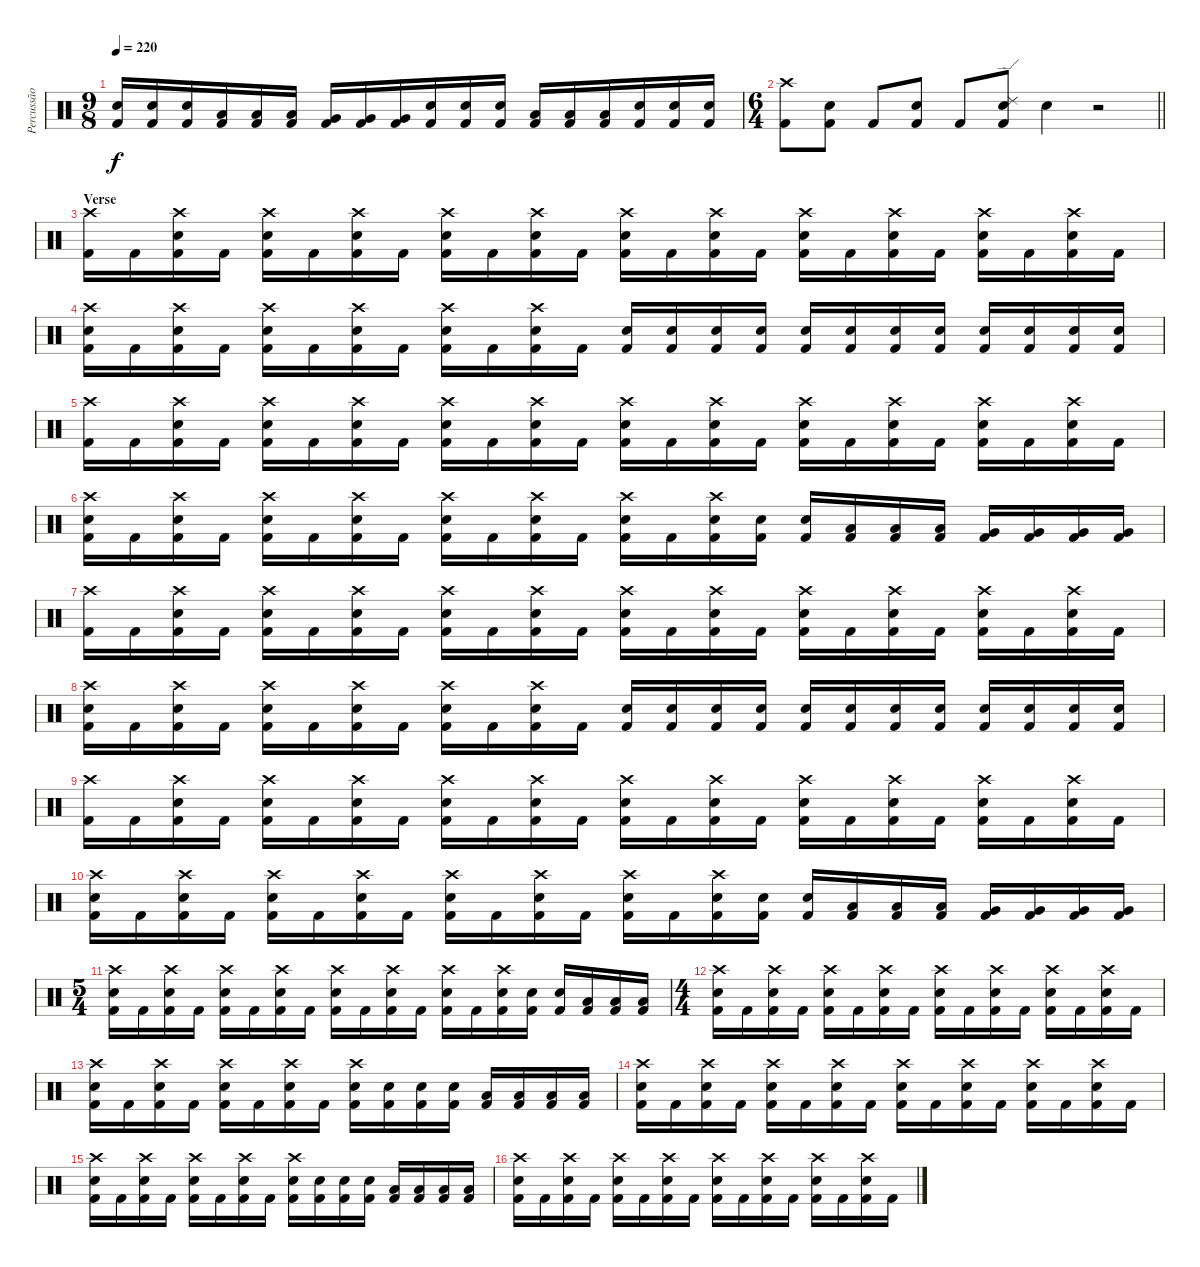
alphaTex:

\track ("Percussão" "Percussão") {instrument percussion}
\staff {score}
\articulation defaults
\ts (9 8)
\tempo 220
\clef neutral
\ks c
("Electric Snare (hit)" "Kick (hit) 2").16{dy f} ("Electric Snare (hit)" "Kick (hit) 2").16 ("Electric Snare (hit)" "Kick (hit) 2").16 ("Low Tom (hit)" "Kick (hit) 2").16 ("Low Tom (hit)" "Kick (hit) 2").16 ("Low Tom (hit)" "Kick (hit) 2").16 ("Very Low Tom (hit)" "Kick (hit) 2").16 ("Very Low Tom (hit)" "Kick (hit) 2").16 ("Very Low Tom (hit)" "Kick (hit) 2").16 ("Electric Snare (hit)" "Kick (hit) 2").16 ("Electric Snare (hit)" "Kick (hit) 2").16 ("Electric Snare (hit)" "Kick (hit) 2").16 ("Low Tom (hit)" "Kick (hit) 2").16 ("Low Tom (hit)" "Kick (hit) 2").16 ("Low Tom (hit)" "Kick (hit) 2").16 ("Electric Snare (hit)" "Kick (hit) 2").16 ("Electric Snare (hit)" "Kick (hit) 2").16 ("Electric Snare (hit)" "Kick (hit) 2").16 |
\ts (6 4)
\barLineRight lightlight
("Crash high (hit)" "Kick (hit) 2").8 ("Electric Snare (hit)" "Kick (hit) 2").8 "Kick (hit) 2".8 ("Electric Snare (hit)" "Kick (hit) 2").8 "Kick (hit) 2".8 ("Ride (edge) 2" "Electric Snare (hit)" "Kick (hit) 2").8 "Electric Snare (hit)".4 r.2 |
\section ("" "Verse")
("Crash high (hit)" "Kick (hit) 2").16 "Kick (hit) 2".16 ("Crash high (hit)" "Electric Snare (hit)" "Kick (hit) 2").16 "Kick (hit) 2".16 ("Crash high (hit)" "Electric Snare (hit)" "Kick (hit) 2").16 "Kick (hit) 2".16 ("Crash high (hit)" "Electric Snare (hit)" "Kick (hit) 2").16 "Kick (hit) 2".16 ("Crash high (hit)" "Electric Snare (hit)" "Kick (hit) 2").16 "Kick (hit) 2".16 ("Crash high (hit)" "Electric Snare (hit)" "Kick (hit) 2").16 "Kick (hit) 2".16 ("Crash high (hit)" "Electric Snare (hit)" "Kick (hit) 2").16 "Kick (hit) 2".16 ("Crash high (hit)" "Electric Snare (hit)" "Kick (hit) 2").16 "Kick (hit) 2".16 ("Crash high (hit)" "Electric Snare (hit)" "Kick (hit) 2").16 "Kick (hit) 2".16 ("Crash high (hit)" "Electric Snare (hit)" "Kick (hit) 2").16 "Kick (hit) 2".16 ("Crash high (hit)" "Electric Snare (hit)" "Kick (hit) 2").16 "Kick (hit) 2".16 ("Crash high (hit)" "Electric Snare (hit)" "Kick (hit) 2").16 "Kick (hit) 2".16 |
("Crash high (hit)" "Electric Snare (hit)" "Kick (hit) 2").16 "Kick (hit) 2".16 ("Crash high (hit)" "Electric Snare (hit)" "Kick (hit) 2").16 "Kick (hit) 2".16 ("Crash high (hit)" "Electric Snare (hit)" "Kick (hit) 2").16 "Kick (hit) 2".16 ("Crash high (hit)" "Electric Snare (hit)" "Kick (hit) 2").16 "Kick (hit) 2".16 ("Crash high (hit)" "Electric Snare (hit)" "Kick (hit) 2").16 "Kick (hit) 2".16 ("Crash high (hit)" "Electric Snare (hit)" "Kick (hit) 2").16 "Kick (hit) 2".16 ("Electric Snare (hit)" "Kick (hit) 2").16 ("Electric Snare (hit)" "Kick (hit) 2").16 ("Electric Snare (hit)" "Kick (hit) 2").16 ("Electric Snare (hit)" "Kick (hit) 2").16 ("Electric Snare (hit)" "Kick (hit) 2").16 ("Electric Snare (hit)" "Kick (hit) 2").16 ("Electric Snare (hit)" "Kick (hit) 2").16 ("Electric Snare (hit)" "Kick (hit) 2").16 ("Electric Snare (hit)" "Kick (hit) 2").16 ("Electric Snare (hit)" "Kick (hit) 2").16 ("Electric Snare (hit)" "Kick (hit) 2").16 ("Electric Snare (hit)" "Kick (hit) 2").16 |
("Crash high (hit)" "Kick (hit) 2").16 "Kick (hit) 2".16 ("Crash high (hit)" "Electric Snare (hit)" "Kick (hit) 2").16 "Kick (hit) 2".16 ("Crash high (hit)" "Electric Snare (hit)" "Kick (hit) 2").16 "Kick (hit) 2".16 ("Crash high (hit)" "Electric Snare (hit)" "Kick (hit) 2").16 "Kick (hit) 2".16 ("Crash high (hit)" "Electric Snare (hit)" "Kick (hit) 2").16 "Kick (hit) 2".16 ("Crash high (hit)" "Electric Snare (hit)" "Kick (hit) 2").16 "Kick (hit) 2".16 ("Crash high (hit)" "Electric Snare (hit)" "Kick (hit) 2").16 "Kick (hit) 2".16 ("Crash high (hit)" "Electric Snare (hit)" "Kick (hit) 2").16 "Kick (hit) 2".16 ("Crash high (hit)" "Electric Snare (hit)" "Kick (hit) 2").16 "Kick (hit) 2".16 ("Crash high (hit)" "Electric Snare (hit)" "Kick (hit) 2").16 "Kick (hit) 2".16 ("Crash high (hit)" "Electric Snare (hit)" "Kick (hit) 2").16 "Kick (hit) 2".16 ("Crash high (hit)" "Electric Snare (hit)" "Kick (hit) 2").16 "Kick (hit) 2".16 |
("Crash high (hit)" "Electric Snare (hit)" "Kick (hit) 2").16 "Kick (hit) 2".16 ("Crash high (hit)" "Electric Snare (hit)" "Kick (hit) 2").16 "Kick (hit) 2".16 ("Crash high (hit)" "Electric Snare (hit)" "Kick (hit) 2").16 "Kick (hit) 2".16 ("Crash high (hit)" "Electric Snare (hit)" "Kick (hit) 2").16 "Kick (hit) 2".16 ("Crash high (hit)" "Electric Snare (hit)" "Kick (hit) 2").16 "Kick (hit) 2".16 ("Crash high (hit)" "Electric Snare (hit)" "Kick (hit) 2").16 "Kick (hit) 2".16 ("Crash high (hit)" "Electric Snare (hit)" "Kick (hit) 2").16 "Kick (hit) 2".16 ("Crash high (hit)" "Electric Snare (hit)" "Kick (hit) 2").16 ("Electric Snare (hit)" "Kick (hit) 2").16 ("Electric Snare (hit)" "Kick (hit) 2").16 ("Low Tom (hit)" "Kick (hit) 2").16 ("Low Tom (hit)" "Kick (hit) 2").16 ("Low Tom (hit)" "Kick (hit) 2").16 ("Very Low Tom (hit)" "Kick (hit) 2").16 ("Very Low Tom (hit)" "Kick (hit) 2").16 ("Very Low Tom (hit)" "Kick (hit) 2").16 ("Very Low Tom (hit)" "Kick (hit) 2").16 |
("Crash high (hit)" "Kick (hit) 2").16 "Kick (hit) 2".16 ("Crash high (hit)" "Electric Snare (hit)" "Kick (hit) 2").16 "Kick (hit) 2".16 ("Crash high (hit)" "Electric Snare (hit)" "Kick (hit) 2").16 "Kick (hit) 2".16 ("Crash high (hit)" "Electric Snare (hit)" "Kick (hit) 2").16 "Kick (hit) 2".16 ("Crash high (hit)" "Electric Snare (hit)" "Kick (hit) 2").16 "Kick (hit) 2".16 ("Crash high (hit)" "Electric Snare (hit)" "Kick (hit) 2").16 "Kick (hit) 2".16 ("Crash high (hit)" "Electric Snare (hit)" "Kick (hit) 2").16 "Kick (hit) 2".16 ("Crash high (hit)" "Electric Snare (hit)" "Kick (hit) 2").16 "Kick (hit) 2".16 ("Crash high (hit)" "Electric Snare (hit)" "Kick (hit) 2").16 "Kick (hit) 2".16 ("Crash high (hit)" "Electric Snare (hit)" "Kick (hit) 2").16 "Kick (hit) 2".16 ("Crash high (hit)" "Electric Snare (hit)" "Kick (hit) 2").16 "Kick (hit) 2".16 ("Crash high (hit)" "Electric Snare (hit)" "Kick (hit) 2").16 "Kick (hit) 2".16 |
("Crash high (hit)" "Electric Snare (hit)" "Kick (hit) 2").16 "Kick (hit) 2".16 ("Crash high (hit)" "Electric Snare (hit)" "Kick (hit) 2").16 "Kick (hit) 2".16 ("Crash high (hit)" "Electric Snare (hit)" "Kick (hit) 2").16 "Kick (hit) 2".16 ("Crash high (hit)" "Electric Snare (hit)" "Kick (hit) 2").16 "Kick (hit) 2".16 ("Crash high (hit)" "Electric Snare (hit)" "Kick (hit) 2").16 "Kick (hit) 2".16 ("Crash high (hit)" "Electric Snare (hit)" "Kick (hit) 2").16 "Kick (hit) 2".16 ("Electric Snare (hit)" "Kick (hit) 2").16 ("Electric Snare (hit)" "Kick (hit) 2").16 ("Electric Snare (hit)" "Kick (hit) 2").16 ("Electric Snare (hit)" "Kick (hit) 2").16 ("Electric Snare (hit)" "Kick (hit) 2").16 ("Electric Snare (hit)" "Kick (hit) 2").16 ("Electric Snare (hit)" "Kick (hit) 2").16 ("Electric Snare (hit)" "Kick (hit) 2").16 ("Electric Snare (hit)" "Kick (hit) 2").16 ("Electric Snare (hit)" "Kick (hit) 2").16 ("Electric Snare (hit)" "Kick (hit) 2").16 ("Electric Snare (hit)" "Kick (hit) 2").16 |
("Crash high (hit)" "Kick (hit) 2").16 "Kick (hit) 2".16 ("Crash high (hit)" "Electric Snare (hit)" "Kick (hit) 2").16 "Kick (hit) 2".16 ("Crash high (hit)" "Electric Snare (hit)" "Kick (hit) 2").16 "Kick (hit) 2".16 ("Crash high (hit)" "Electric Snare (hit)" "Kick (hit) 2").16 "Kick (hit) 2".16 ("Crash high (hit)" "Electric Snare (hit)" "Kick (hit) 2").16 "Kick (hit) 2".16 ("Crash high (hit)" "Electric Snare (hit)" "Kick (hit) 2").16 "Kick (hit) 2".16 ("Crash high (hit)" "Electric Snare (hit)" "Kick (hit) 2").16 "Kick (hit) 2".16 ("Crash high (hit)" "Electric Snare (hit)" "Kick (hit) 2").16 "Kick (hit) 2".16 ("Crash high (hit)" "Electric Snare (hit)" "Kick (hit) 2").16 "Kick (hit) 2".16 ("Crash high (hit)" "Electric Snare (hit)" "Kick (hit) 2").16 "Kick (hit) 2".16 ("Crash high (hit)" "Electric Snare (hit)" "Kick (hit) 2").16 "Kick (hit) 2".16 ("Crash high (hit)" "Electric Snare (hit)" "Kick (hit) 2").16 "Kick (hit) 2".16 |
("Crash high (hit)" "Electric Snare (hit)" "Kick (hit) 2").16 "Kick (hit) 2".16 ("Crash high (hit)" "Electric Snare (hit)" "Kick (hit) 2").16 "Kick (hit) 2".16 ("Crash high (hit)" "Electric Snare (hit)" "Kick (hit) 2").16 "Kick (hit) 2".16 ("Crash high (hit)" "Electric Snare (hit)" "Kick (hit) 2").16 "Kick (hit) 2".16 ("Crash high (hit)" "Electric Snare (hit)" "Kick (hit) 2").16 "Kick (hit) 2".16 ("Crash high (hit)" "Electric Snare (hit)" "Kick (hit) 2").16 "Kick (hit) 2".16 ("Crash high (hit)" "Electric Snare (hit)" "Kick (hit) 2").16 "Kick (hit) 2".16 ("Crash high (hit)" "Electric Snare (hit)" "Kick (hit) 2").16 ("Electric Snare (hit)" "Kick (hit) 2").16 ("Electric Snare (hit)" "Kick (hit) 2").16 ("Low Tom (hit)" "Kick (hit) 2").16 ("Low Tom (hit)" "Kick (hit) 2").16 ("Low Tom (hit)" "Kick (hit) 2").16 ("Very Low Tom (hit)" "Kick (hit) 2").16 ("Very Low Tom (hit)" "Kick (hit) 2").16 ("Very Low Tom (hit)" "Kick (hit) 2").16 ("Very Low Tom (hit)" "Kick (hit) 2").16 |
\ts (5 4)
("Crash high (hit)" "Electric Snare (hit)" "Kick (hit) 2").16 "Kick (hit) 2".16 ("Crash high (hit)" "Electric Snare (hit)" "Kick (hit) 2").16 "Kick (hit) 2".16 ("Crash high (hit)" "Electric Snare (hit)" "Kick (hit) 2").16 "Kick (hit) 2".16 ("Crash high (hit)" "Electric Snare (hit)" "Kick (hit) 2").16 "Kick (hit) 2".16 ("Crash high (hit)" "Electric Snare (hit)" "Kick (hit) 2").16 "Kick (hit) 2".16 ("Crash high (hit)" "Electric Snare (hit)" "Kick (hit) 2").16 "Kick (hit) 2".16 ("Crash high (hit)" "Electric Snare (hit)" "Kick (hit) 2").16 "Kick (hit) 2".16 ("Crash high (hit)" "Electric Snare (hit)" "Kick (hit) 2").16 ("Electric Snare (hit)" "Kick (hit) 2").16 ("Electric Snare (hit)" "Kick (hit) 2").16 ("Low Tom (hit)" "Kick (hit) 2").16 ("Low Tom (hit)" "Kick (hit) 2").16 ("Low Tom (hit)" "Kick (hit) 2").16 |
\ts (4 4)
("Crash high (hit)" "Electric Snare (hit)" "Kick (hit) 2").16 "Kick (hit) 2".16 ("Crash high (hit)" "Electric Snare (hit)" "Kick (hit) 2").16 "Kick (hit) 2".16 ("Crash high (hit)" "Electric Snare (hit)" "Kick (hit) 2").16 "Kick (hit) 2".16 ("Crash high (hit)" "Electric Snare (hit)" "Kick (hit) 2").16 "Kick (hit) 2".16 ("Crash high (hit)" "Electric Snare (hit)" "Kick (hit) 2").16 "Kick (hit) 2".16 ("Crash high (hit)" "Electric Snare (hit)" "Kick (hit) 2").16 "Kick (hit) 2".16 ("Crash high (hit)" "Electric Snare (hit)" "Kick (hit) 2").16 "Kick (hit) 2".16 ("Crash high (hit)" "Electric Snare (hit)" "Kick (hit) 2").16 "Kick (hit) 2".16 |
("Crash high (hit)" "Electric Snare (hit)" "Kick (hit) 2").16 "Kick (hit) 2".16 ("Crash high (hit)" "Electric Snare (hit)" "Kick (hit) 2").16 "Kick (hit) 2".16 ("Crash high (hit)" "Electric Snare (hit)" "Kick (hit) 2").16 "Kick (hit) 2".16 ("Crash high (hit)" "Electric Snare (hit)" "Kick (hit) 2").16 "Kick (hit) 2".16 ("Crash high (hit)" "Electric Snare (hit)" "Kick (hit) 2").16 ("Electric Snare (hit)" "Kick (hit) 2").16 ("Electric Snare (hit)" "Kick (hit) 2").16 ("Electric Snare (hit)" "Kick (hit) 2").16 ("Low Tom (hit)" "Kick (hit) 2").16 ("Low Tom (hit)" "Kick (hit) 2").16 ("Low Tom (hit)" "Kick (hit) 2").16 ("Low Tom (hit)" "Kick (hit) 2").16 |
("Crash high (hit)" "Electric Snare (hit)" "Kick (hit) 2").16 "Kick (hit) 2".16 ("Crash high (hit)" "Electric Snare (hit)" "Kick (hit) 2").16 "Kick (hit) 2".16 ("Crash high (hit)" "Electric Snare (hit)" "Kick (hit) 2").16 "Kick (hit) 2".16 ("Crash high (hit)" "Electric Snare (hit)" "Kick (hit) 2").16 "Kick (hit) 2".16 ("Crash high (hit)" "Electric Snare (hit)" "Kick (hit) 2").16 "Kick (hit) 2".16 ("Crash high (hit)" "Electric Snare (hit)" "Kick (hit) 2").16 "Kick (hit) 2".16 ("Crash high (hit)" "Electric Snare (hit)" "Kick (hit) 2").16 "Kick (hit) 2".16 ("Crash high (hit)" "Electric Snare (hit)" "Kick (hit) 2").16 "Kick (hit) 2".16 |
("Crash high (hit)" "Electric Snare (hit)" "Kick (hit) 2").16 "Kick (hit) 2".16 ("Crash high (hit)" "Electric Snare (hit)" "Kick (hit) 2").16 "Kick (hit) 2".16 ("Crash high (hit)" "Electric Snare (hit)" "Kick (hit) 2").16 "Kick (hit) 2".16 ("Crash high (hit)" "Electric Snare (hit)" "Kick (hit) 2").16 "Kick (hit) 2".16 ("Crash high (hit)" "Electric Snare (hit)" "Kick (hit) 2").16 ("Electric Snare (hit)" "Kick (hit) 2").16 ("Electric Snare (hit)" "Kick (hit) 2").16 ("Electric Snare (hit)" "Kick (hit) 2").16 ("Low Tom (hit)" "Kick (hit) 2").16 ("Low Tom (hit)" "Kick (hit) 2").16 ("Low Tom (hit)" "Kick (hit) 2").16 ("Low Tom (hit)" "Kick (hit) 2").16 |
("Crash high (hit)" "Electric Snare (hit)" "Kick (hit) 2").16 "Kick (hit) 2".16 ("Crash high (hit)" "Electric Snare (hit)" "Kick (hit) 2").16 "Kick (hit) 2".16 ("Crash high (hit)" "Electric Snare (hit)" "Kick (hit) 2").16 "Kick (hit) 2".16 ("Crash high (hit)" "Electric Snare (hit)" "Kick (hit) 2").16 "Kick (hit) 2".16 ("Crash high (hit)" "Electric Snare (hit)" "Kick (hit) 2").16 "Kick (hit) 2".16 ("Crash high (hit)" "Electric Snare (hit)" "Kick (hit) 2").16 "Kick (hit) 2".16 ("Crash high (hit)" "Electric Snare (hit)" "Kick (hit) 2").16 "Kick (hit) 2".16 ("Crash high (hit)" "Electric Snare (hit)" "Kick (hit) 2").16 "Kick (hit) 2".16
